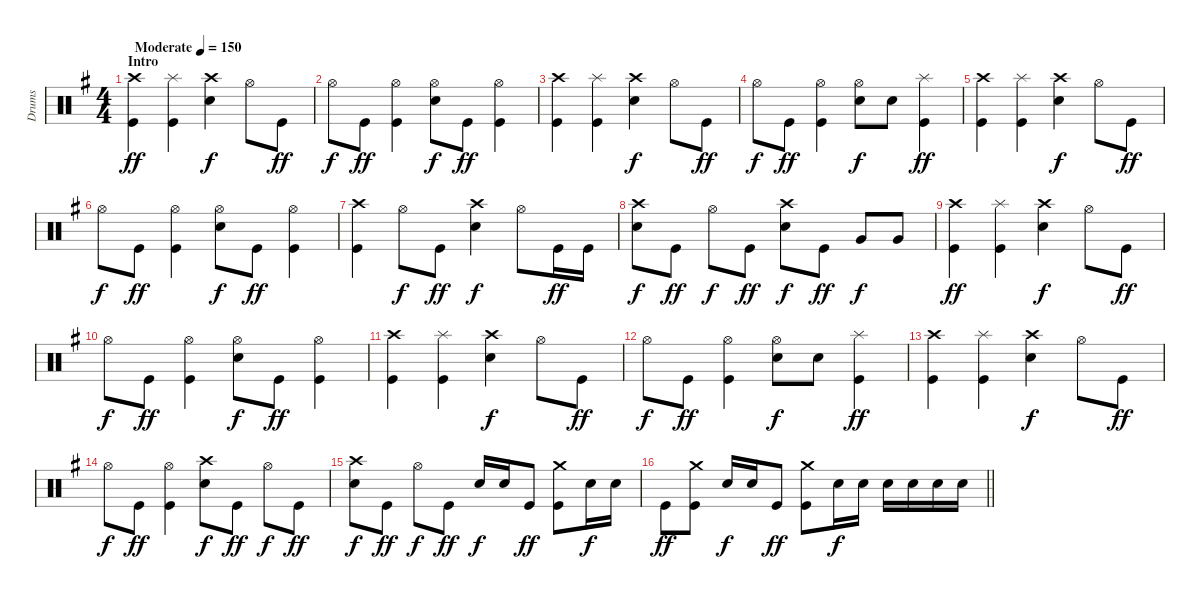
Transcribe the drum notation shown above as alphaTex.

\track ("Drums" "Drums") {instrument percussion}
\staff {score}
\articulation defaults
\ts (4 4)
\section ("" "Intro")
\tempo (150 "Moderate")
\clef neutral
\ks g
("Crash high (hit)" "Kick (hit)").4{dy ff} ("Splash (hit)" "Kick (hit)").4 ("Crash high (hit)" "Electric Snare (hit)").4{dy f} "Hi-Hat (open)".8 "Kick (hit)".8{dy ff} |
"Hi-Hat (open)".8{dy f} "Kick (hit)".8{dy ff} ("Hi-Hat (open)" "Kick (hit)").4 ("Hi-Hat (open)" "Electric Snare (hit)").8{dy f} "Kick (hit)".8{dy ff} ("Hi-Hat (open)" "Kick (hit)").4 |
("Crash high (hit)" "Kick (hit)").4 ("Splash (hit)" "Kick (hit)").4 ("Crash high (hit)" "Electric Snare (hit)").4{dy f} "Hi-Hat (open)".8 "Kick (hit)".8{dy ff} |
"Hi-Hat (open)".8{dy f} "Kick (hit)".8{dy ff} ("Hi-Hat (open)" "Kick (hit)").4 ("Hi-Hat (open)" "Electric Snare (hit)").8{dy f} "Electric Snare (hit)".8 ("Splash (hit)" "Kick (hit)").4{dy ff} |
("Crash high (hit)" "Kick (hit)").4 ("Splash (hit)" "Kick (hit)").4 ("Crash high (hit)" "Electric Snare (hit)").4{dy f} "Hi-Hat (open)".8 "Kick (hit)".8{dy ff} |
"Hi-Hat (open)".8{dy f} "Kick (hit)".8{dy ff} ("Hi-Hat (open)" "Kick (hit)").4 ("Hi-Hat (open)" "Electric Snare (hit)").8{dy f} "Kick (hit)".8{dy ff} ("Hi-Hat (open)" "Kick (hit)").4 |
("Crash high (hit)" "Kick (hit)").4 "Hi-Hat (open)".8{dy f} "Kick (hit)".8{dy ff} ("Crash high (hit)" "Electric Snare (hit)").4{dy f} "Hi-Hat (open)".8 "Kick (hit)".16{dy ff} "Kick (hit)".16 |
("Crash high (hit)" "Electric Snare (hit)").8{dy f} "Kick (hit)".8{dy ff} "Hi-Hat (open)".8{dy f} "Kick (hit)".8{dy ff} ("Crash high (hit)" "Electric Snare (hit)").8{dy f} "Kick (hit)".8{dy ff} "Very Low Tom (hit)".8{dy f} "Very Low Tom (hit)".8 |
("Crash high (hit)" "Kick (hit)").4{dy ff} ("Splash (hit)" "Kick (hit)").4 ("Crash high (hit)" "Electric Snare (hit)").4{dy f} "Hi-Hat (open)".8 "Kick (hit)".8{dy ff} |
"Hi-Hat (open)".8{dy f} "Kick (hit)".8{dy ff} ("Hi-Hat (open)" "Kick (hit)").4 ("Hi-Hat (open)" "Electric Snare (hit)").8{dy f} "Kick (hit)".8{dy ff} ("Hi-Hat (open)" "Kick (hit)").4 |
("Crash high (hit)" "Kick (hit)").4 ("Splash (hit)" "Kick (hit)").4 ("Crash high (hit)" "Electric Snare (hit)").4{dy f} "Hi-Hat (open)".8 "Kick (hit)".8{dy ff} |
"Hi-Hat (open)".8{dy f} "Kick (hit)".8{dy ff} ("Hi-Hat (open)" "Kick (hit)").4 ("Hi-Hat (open)" "Electric Snare (hit)").8{dy f} "Electric Snare (hit)".8 ("Splash (hit)" "Kick (hit)").4{dy ff} |
("Crash high (hit)" "Kick (hit)").4 ("Splash (hit)" "Kick (hit)").4 ("Crash high (hit)" "Electric Snare (hit)").4{dy f} "Hi-Hat (open)".8 "Kick (hit)".8{dy ff} |
"Hi-Hat (open)".8{dy f} "Kick (hit)".8{dy ff} ("Hi-Hat (open)" "Kick (hit)").4 ("Crash high (hit)" "Electric Snare (hit)").8{dy f} "Kick (hit)".8{dy ff} "Hi-Hat (open)".8{dy f} "Kick (hit)".8{dy ff} |
("Crash high (hit)" "Electric Snare (hit)").8{dy f} "Kick (hit)".8{dy ff} "Hi-Hat (open)".8{dy f} "Kick (hit)".8{dy ff} "Electric Snare (hit)".16{dy f} "Electric Snare (hit)".16 "Kick (hit)".8{dy ff} ("Crash medium (hit)" "Kick (hit)").8 "Electric Snare (hit)".16{dy f} "Electric Snare (hit)".16 |
\barLineRight lightlight "Kick (hit)".8{dy ff}
("Crash medium (hit)" "Kick (hit)").8 "Electric Snare (hit)".16{dy f} "Electric Snare (hit)".16 "Kick (hit)".8{dy ff} ("Crash medium (hit)" "Kick (hit)").8 "Electric Snare (hit)".16{dy f} "Electric Snare (hit)".16 "Electric Snare (hit)".16 "Electric Snare (hit)".16 "Electric Snare (hit)".16 "Electric Snare (hit)".16
